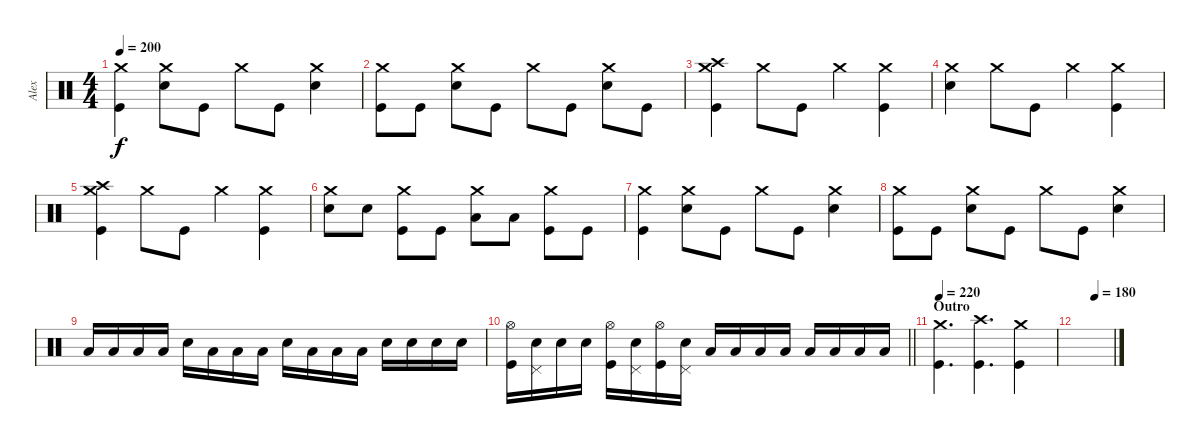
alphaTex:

\track ("Alex" "Alex") {instrument percussion}
\staff {score}
\articulation defaults
\ts (4 4)
\tempo 200
\clef neutral
\ks c
("Crash medium (hit)" "Kick (hit)").4{dy f} ("Crash medium (hit)" "Snare (hit) 2").8 "Kick (hit)".8 "Crash medium (hit)".8 "Kick (hit)".8 ("Crash medium (hit)" "Snare (hit) 2").4 |
("Crash medium (hit)" "Kick (hit)").8 "Kick (hit)".8 ("Crash medium (hit)" "Snare (hit) 2").8 "Kick (hit)".8 "Crash medium (hit)".8 "Kick (hit)".8 ("Crash medium (hit)" "Snare (hit) 2").8 "Kick (hit)".8 |
("Crash medium (hit)" "Crash high (hit)" "Kick (hit)").4 "Crash medium (hit)".8 "Kick (hit)".8 "Crash medium (hit)".4 ("Crash medium (hit)" "Kick (hit)").4 |
("Crash medium (hit)" "Snare (hit) 2").4 "Crash medium (hit)".8 "Kick (hit)".8 "Crash medium (hit)".4 ("Crash medium (hit)" "Kick (hit)").4 |
("Crash medium (hit)" "Crash high (hit)" "Kick (hit)").4 "Crash medium (hit)".8 "Kick (hit)".8 "Crash medium (hit)".4 ("Crash medium (hit)" "Kick (hit)").4 |
("Crash medium (hit)" "Snare (hit) 2").8 "Snare (hit) 2".8 ("Crash medium (hit)" "Kick (hit)").8 "Kick (hit)".8 ("Crash medium (hit)" "Low Tom (hit)").8 "Low Tom (hit)".8 ("Crash medium (hit)" "Kick (hit)").8 "Kick (hit)".8 |
("Crash medium (hit)" "Kick (hit)").4 ("Crash medium (hit)" "Snare (hit) 2").8 "Kick (hit)".8 "Crash medium (hit)".8 "Kick (hit)".8 ("Crash medium (hit)" "Snare (hit) 2").4 |
("Crash medium (hit)" "Kick (hit)").8 "Kick (hit)".8 ("Crash medium (hit)" "Snare (hit) 2").8 "Kick (hit)".8 "Crash medium (hit)".8 "Kick (hit)".8 ("Crash medium (hit)" "Snare (hit) 2").4 |
"Low Tom (hit)".16 "Low Tom (hit)".16 "Low Tom (hit)".16 "Low Tom (hit)".16 "Snare (hit) 2".16 "Low Tom (hit)".16 "Low Tom (hit)".16 "Low Tom (hit)".16 "Snare (hit) 2".16 "Low Tom (hit)".16 "Low Tom (hit)".16 "Low Tom (hit)".16 "Snare (hit) 2".16 "Snare (hit) 2".16 "Snare (hit) 2".16 "Snare (hit) 2".16 |
\barLineRight lightlight
("Hi-Hat (open)" "Kick (hit)").16 ("Snare (hit) 2" "Pedal Hi-Hat (hit)").16 "Snare (hit) 2".16 "Snare (hit) 2".16 ("Hi-Hat (open)" "Kick (hit)").16 ("Snare (hit) 2" "Pedal Hi-Hat (hit)").16 ("Hi-Hat (open)" "Kick (hit)").16 ("Snare (hit) 2" "Pedal Hi-Hat (hit)").16 "Low Tom (hit)".16 "Low Tom (hit)".16 "Low Tom (hit)".16 "Low Tom (hit)".16 "Low Floor Tom (hit)".16 "Low Floor Tom (hit)".16 "Low Floor Tom (hit)".16 "Low Floor Tom (hit)".16 |
\section ("" "Outro")
\tempo 180
\tempo 220
("Crash medium (hit)" "Kick (hit)").4{d} ("Crash high (hit)" "Kick (hit)").4{d} ("Crash medium (hit)" "Kick (hit)").4 |
\tempo (180 0.5)
